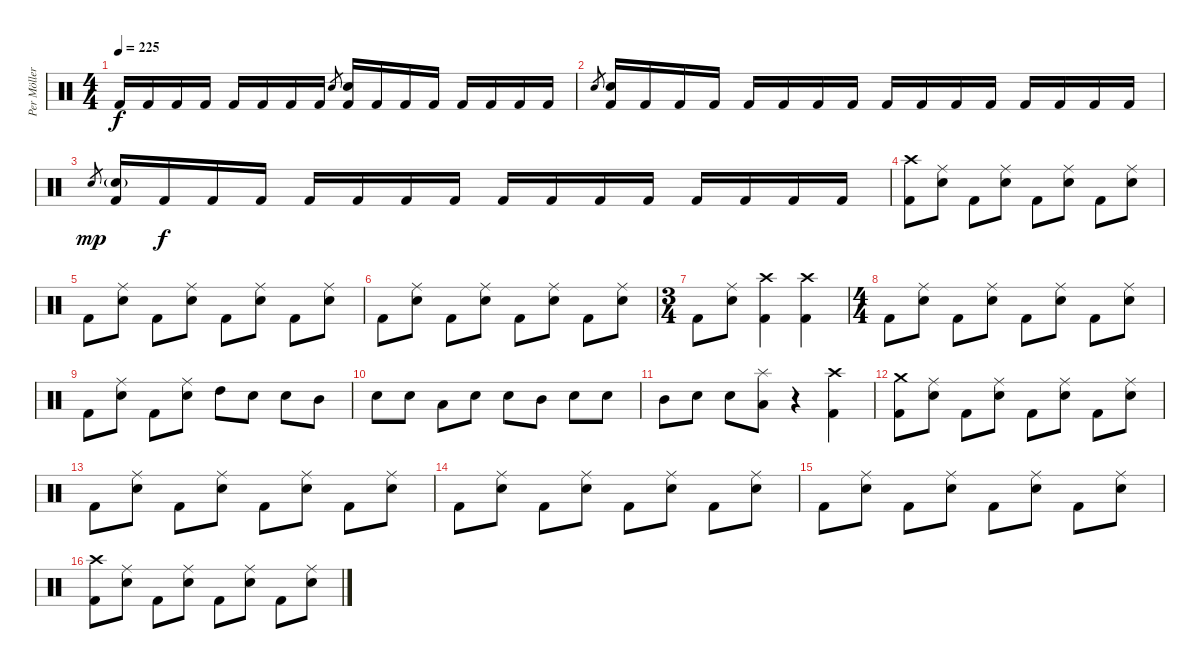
\track ("Per Möller Jensen" "Per Möller") {instrument percussion}
\staff {score}
\articulation defaults
\ts (4 4)
\tempo 225
\clef neutral
\ks c "Kick (hit) 2".16{dy f} "Kick (hit) 2".16 "Kick (hit) 2".16 "Kick (hit) 2".16 "Kick (hit) 2".16 "Kick (hit) 2".16 "Kick (hit) 2".16 "Kick (hit) 2".16 "Snare (hit) 2".8{gr}
("Snare (hit) 2" "Kick (hit) 2").16 "Kick (hit) 2".16 "Kick (hit) 2".16 "Kick (hit) 2".16 "Kick (hit) 2".16 "Kick (hit) 2".16 "Kick (hit) 2".16 "Kick (hit) 2".16 |
"Snare (hit) 2".8{gr} ("Snare (hit) 2" "Kick (hit) 2").16 "Kick (hit) 2".16 "Kick (hit) 2".16 "Kick (hit) 2".16 "Kick (hit) 2".16 "Kick (hit) 2".16 "Kick (hit) 2".16 "Kick (hit) 2".16 "Kick (hit) 2".16 "Kick (hit) 2".16 "Kick (hit) 2".16 "Kick (hit) 2".16 "Kick (hit) 2".16 "Kick (hit) 2".16 "Kick (hit) 2".16 "Kick (hit) 2".16 |
"Snare (hit) 2".8{gr dy mp} ("Snare (hit) 2"{g} "Kick (hit) 2").16 "Kick (hit) 2".16{dy f} "Kick (hit) 2".16 "Kick (hit) 2".16 "Kick (hit) 2".16 "Kick (hit) 2".16 "Kick (hit) 2".16 "Kick (hit) 2".16 "Kick (hit) 2".16 "Kick (hit) 2".16 "Kick (hit) 2".16 "Kick (hit) 2".16 "Kick (hit) 2".16 "Kick (hit) 2".16 "Kick (hit) 2".16 "Kick (hit) 2".16 |
("Crash high (hit)" "Kick (hit) 2").8 ("Ride (middle)" "Snare (hit) 2").8 "Kick (hit) 2".8 ("Ride (middle)" "Snare (hit) 2").8 "Kick (hit) 2".8 ("Ride (middle)" "Snare (hit) 2").8 "Kick (hit) 2".8 ("Ride (middle)" "Snare (hit) 2").8 |
"Kick (hit) 2".8 ("Ride (middle)" "Snare (hit) 2").8 "Kick (hit) 2".8 ("Ride (middle)" "Snare (hit) 2").8 "Kick (hit) 2".8 ("Ride (middle)" "Snare (hit) 2").8 "Kick (hit) 2".8 ("Ride (middle)" "Snare (hit) 2").8 |
"Kick (hit) 2".8 ("Ride (middle)" "Snare (hit) 2").8 "Kick (hit) 2".8 ("Ride (middle)" "Snare (hit) 2").8 "Kick (hit) 2".8 ("Ride (middle)" "Snare (hit) 2").8 "Kick (hit) 2".8 ("Ride (middle)" "Snare (hit) 2").8 |
\ts (3 4)
"Kick (hit) 2".8 ("Ride (middle)" "Snare (hit) 2").8 ("Crash high (hit)" "Kick (hit) 2").4 ("Crash high (hit)" "Kick (hit) 2").4 |
\ts (4 4)
"Kick (hit) 2".8 ("Ride (middle)" "Snare (hit) 2").8 "Kick (hit) 2".8 ("Ride (middle)" "Snare (hit) 2").8 "Kick (hit) 2".8 ("Ride (middle)" "Snare (hit) 2").8 "Kick (hit) 2".8 ("Ride (middle)" "Snare (hit) 2").8 |
"Kick (hit) 2".8 ("Ride (middle)" "Snare (hit) 2").8 "Kick (hit) 2".8 ("Ride (middle)" "Snare (hit) 2").8 "High Tom (hit)".8 "Snare (hit) 2".8 "Snare (hit) 2".8 "Mid Tom (hit)".8 |
"Snare (hit) 2".8 "Snare (hit) 2".8 "Low Tom (hit)".8 "Snare (hit) 2".8 "Snare (hit) 2".8 "Mid Tom (hit)".8 "Snare (hit) 2".8 "Snare (hit) 2".8 |
"Mid Tom (hit)".8 "Snare (hit) 2".8 "Snare (hit) 2".8 ("Splash (hit)" "Low Tom (hit)").8 r.4 ("Crash high (hit)" "Kick (hit) 2").4 |
("Crash medium (hit)" "Kick (hit) 2").8 ("Ride (middle)" "Snare (hit) 2").8 "Kick (hit) 2".8 ("Ride (middle)" "Snare (hit) 2").8 "Kick (hit) 2".8 ("Ride (middle)" "Snare (hit) 2").8 "Kick (hit) 2".8 ("Ride (middle)" "Snare (hit) 2").8 |
"Kick (hit) 2".8 ("Ride (middle)" "Snare (hit) 2").8 "Kick (hit) 2".8 ("Ride (middle)" "Snare (hit) 2").8 "Kick (hit) 2".8 ("Ride (middle)" "Snare (hit) 2").8 "Kick (hit) 2".8 ("Ride (middle)" "Snare (hit) 2").8 |
"Kick (hit) 2".8 ("Ride (middle)" "Snare (hit) 2").8 "Kick (hit) 2".8 ("Ride (middle)" "Snare (hit) 2").8 "Kick (hit) 2".8 ("Ride (middle)" "Snare (hit) 2").8 "Kick (hit) 2".8 ("Ride (middle)" "Snare (hit) 2").8 |
"Kick (hit) 2".8 ("Ride (middle)" "Snare (hit) 2").8 "Kick (hit) 2".8 ("Ride (middle)" "Snare (hit) 2").8 "Kick (hit) 2".8 ("Ride (middle)" "Snare (hit) 2").8 "Kick (hit) 2".8 ("Ride (middle)" "Snare (hit) 2").8 |
("Crash high (hit)" "Kick (hit) 2").8 ("Ride (middle)" "Snare (hit) 2").8 "Kick (hit) 2".8 ("Ride (middle)" "Snare (hit) 2").8 "Kick (hit) 2".8 ("Ride (middle)" "Snare (hit) 2").8 "Kick (hit) 2".8 ("Ride (middle)" "Snare (hit) 2").8
